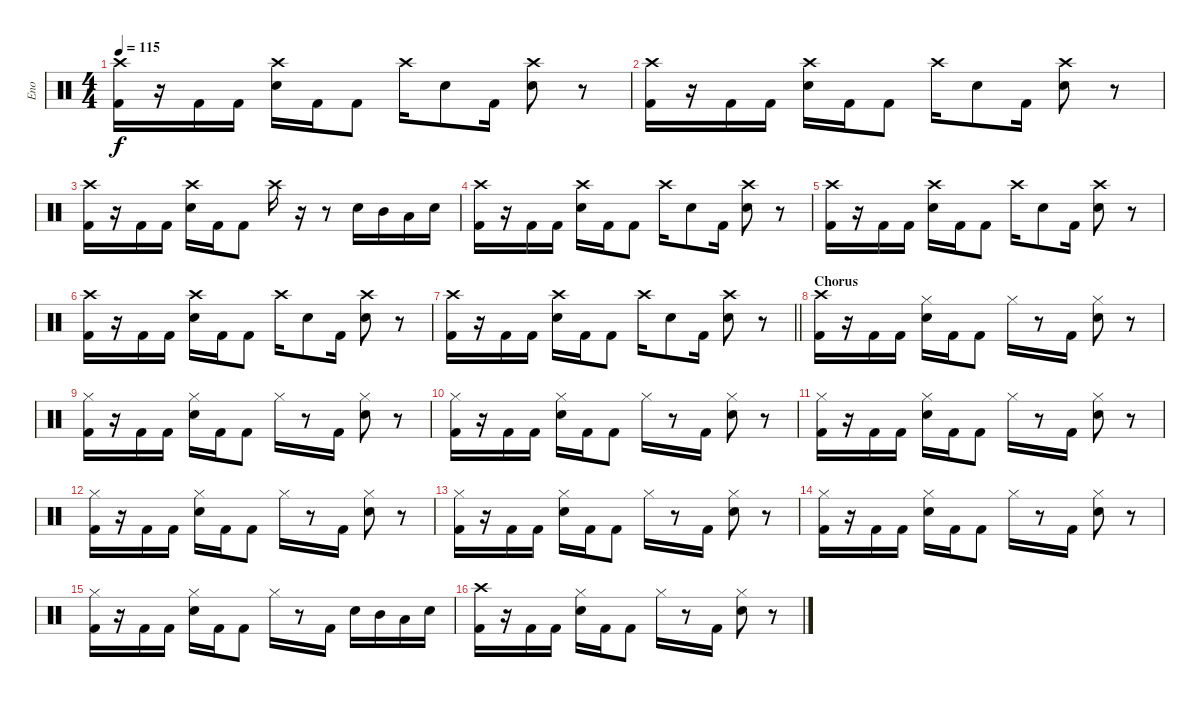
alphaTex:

\track ("Eno" "Eno") {instrument percussion}
\staff {score}
\articulation defaults
\ts (4 4)
\tempo 115
\clef neutral
\ks c
("Kick (hit) 2" "Crash high (hit)").16{dy f} r.16 "Kick (hit) 2".16 "Kick (hit) 2".16 ("Electric Snare (hit)" "Crash high (hit)").16 "Kick (hit) 2".16 "Kick (hit) 2".8 "Crash high (hit)".16 "Electric Snare (hit)".8 "Kick (hit) 2".16 ("Electric Snare (hit)" "Crash high (hit)").8 r.8 |
("Kick (hit) 2" "Crash high (hit)").16 r.16 "Kick (hit) 2".16 "Kick (hit) 2".16 ("Electric Snare (hit)" "Crash high (hit)").16 "Kick (hit) 2".16 "Kick (hit) 2".8 "Crash high (hit)".16 "Electric Snare (hit)".8 "Kick (hit) 2".16 ("Electric Snare (hit)" "Crash high (hit)").8 r.8 |
("Kick (hit) 2" "Crash high (hit)").16 r.16 "Kick (hit) 2".16 "Kick (hit) 2".16 ("Electric Snare (hit)" "Crash high (hit)").16 "Kick (hit) 2".16 "Kick (hit) 2".8 "Crash high (hit)".16 r.16 r.8 "Electric Snare (hit)".16 "Mid Tom (hit)".16 "Low Tom (hit)".16 "Electric Snare (hit)".16 |
("Kick (hit) 2" "Crash high (hit)").16 r.16 "Kick (hit) 2".16 "Kick (hit) 2".16 ("Electric Snare (hit)" "Crash high (hit)").16 "Kick (hit) 2".16 "Kick (hit) 2".8 "Crash high (hit)".16 "Electric Snare (hit)".8 "Kick (hit) 2".16 ("Electric Snare (hit)" "Crash high (hit)").8 r.8 |
("Kick (hit) 2" "Crash high (hit)").16 r.16 "Kick (hit) 2".16 "Kick (hit) 2".16 ("Electric Snare (hit)" "Crash high (hit)").16 "Kick (hit) 2".16 "Kick (hit) 2".8 "Crash high (hit)".16 "Electric Snare (hit)".8 "Kick (hit) 2".16 ("Electric Snare (hit)" "Crash high (hit)").8 r.8 |
("Kick (hit) 2" "Crash high (hit)").16 r.16 "Kick (hit) 2".16 "Kick (hit) 2".16 ("Electric Snare (hit)" "Crash high (hit)").16 "Kick (hit) 2".16 "Kick (hit) 2".8 "Crash high (hit)".16 "Electric Snare (hit)".8 "Kick (hit) 2".16 ("Electric Snare (hit)" "Crash high (hit)").8 r.8 |
\barLineRight lightlight
("Kick (hit) 2" "Crash high (hit)").16 r.16 "Kick (hit) 2".16 "Kick (hit) 2".16 ("Electric Snare (hit)" "Crash high (hit)").16 "Kick (hit) 2".16 "Kick (hit) 2".8 "Crash high (hit)".16 "Electric Snare (hit)".8 "Kick (hit) 2".16 ("Electric Snare (hit)" "Crash high (hit)").8 r.8 |
\section ("" "Chorus")
("Kick (hit) 2" "Crash high (hit)").16 r.16 "Kick (hit) 2".16 "Kick (hit) 2".16 ("Electric Snare (hit)" "Hi-Hat (closed)").16 "Kick (hit) 2".16 "Kick (hit) 2".8 "Hi-Hat (closed)".16 r.8 "Kick (hit) 2".16 ("Electric Snare (hit)" "Hi-Hat (closed)").8 r.8 |
("Kick (hit) 2" "Hi-Hat (closed)").16 r.16 "Kick (hit) 2".16 "Kick (hit) 2".16 ("Electric Snare (hit)" "Hi-Hat (closed)").16 "Kick (hit) 2".16 "Kick (hit) 2".8 "Hi-Hat (closed)".16 r.8 "Kick (hit) 2".16 ("Electric Snare (hit)" "Hi-Hat (closed)").8 r.8 |
("Kick (hit) 2" "Hi-Hat (closed)").16 r.16 "Kick (hit) 2".16 "Kick (hit) 2".16 ("Electric Snare (hit)" "Hi-Hat (closed)").16 "Kick (hit) 2".16 "Kick (hit) 2".8 "Hi-Hat (closed)".16 r.8 "Kick (hit) 2".16 ("Electric Snare (hit)" "Hi-Hat (closed)").8 r.8 |
("Kick (hit) 2" "Hi-Hat (closed)").16 r.16 "Kick (hit) 2".16 "Kick (hit) 2".16 ("Electric Snare (hit)" "Hi-Hat (closed)").16 "Kick (hit) 2".16 "Kick (hit) 2".8 "Hi-Hat (closed)".16 r.8 "Kick (hit) 2".16 ("Electric Snare (hit)" "Hi-Hat (closed)").8 r.8 |
("Kick (hit) 2" "Hi-Hat (closed)").16 r.16 "Kick (hit) 2".16 "Kick (hit) 2".16 ("Electric Snare (hit)" "Hi-Hat (closed)").16 "Kick (hit) 2".16 "Kick (hit) 2".8 "Hi-Hat (closed)".16 r.8 "Kick (hit) 2".16 ("Electric Snare (hit)" "Hi-Hat (closed)").8 r.8 |
("Kick (hit) 2" "Hi-Hat (closed)").16 r.16 "Kick (hit) 2".16 "Kick (hit) 2".16 ("Electric Snare (hit)" "Hi-Hat (closed)").16 "Kick (hit) 2".16 "Kick (hit) 2".8 "Hi-Hat (closed)".16 r.8 "Kick (hit) 2".16 ("Electric Snare (hit)" "Hi-Hat (closed)").8 r.8 |
("Kick (hit) 2" "Hi-Hat (closed)").16 r.16 "Kick (hit) 2".16 "Kick (hit) 2".16 ("Electric Snare (hit)" "Hi-Hat (closed)").16 "Kick (hit) 2".16 "Kick (hit) 2".8 "Hi-Hat (closed)".16 r.8 "Kick (hit) 2".16 ("Electric Snare (hit)" "Hi-Hat (closed)").8 r.8 |
("Kick (hit) 2" "Hi-Hat (closed)").16 r.16 "Kick (hit) 2".16 "Kick (hit) 2".16 ("Electric Snare (hit)" "Hi-Hat (closed)").16 "Kick (hit) 2".16 "Kick (hit) 2".8 "Hi-Hat (closed)".16 r.8 "Kick (hit) 2".16 "Electric Snare (hit)".16 "Mid Tom (hit)".16 "Low Tom (hit)".16 "Electric Snare (hit)".16 |
("Kick (hit) 2" "Crash high (hit)").16 r.16 "Kick (hit) 2".16 "Kick (hit) 2".16 ("Electric Snare (hit)" "Hi-Hat (closed)").16 "Kick (hit) 2".16 "Kick (hit) 2".8 "Hi-Hat (closed)".16 r.8 "Kick (hit) 2".16 ("Electric Snare (hit)" "Hi-Hat (closed)").8 r.8
